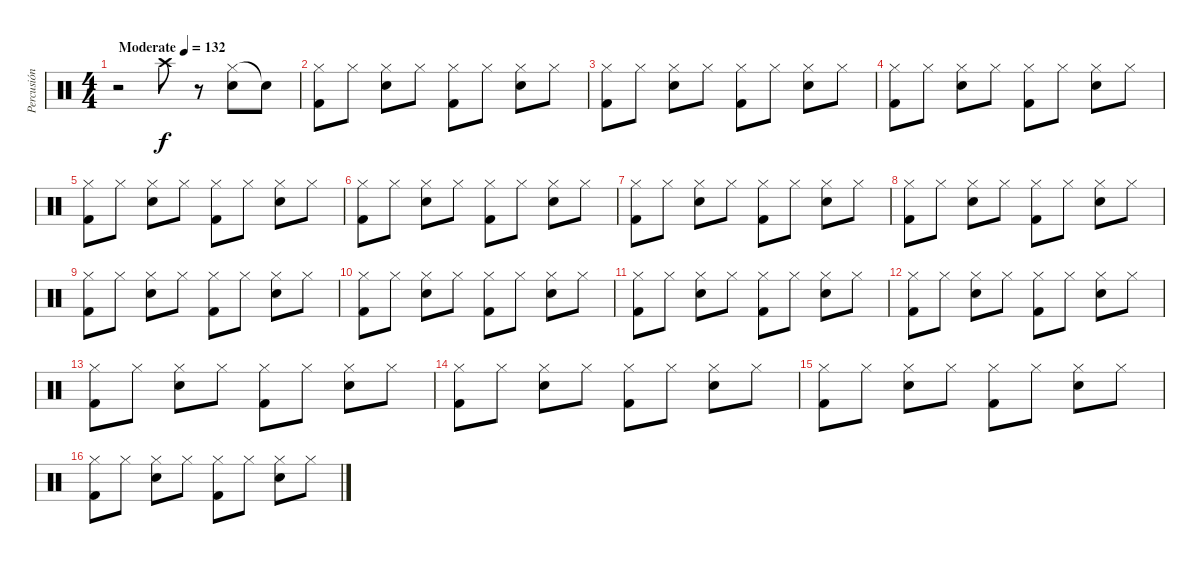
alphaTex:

\track ("Percusión" "Percusión") {instrument percussion}
\staff {score}
\articulation defaults
\ts (4 4)
\tempo (132 "Moderate")
\clef neutral
\ks c
r.2{dy f} "Crash high (hit)".8 r.8 ("Hi-Hat (closed)" "Snare (hit)").8 "Snare (hit)"{t}.8 |
("Hi-Hat (closed)" "Kick (hit) 2").8 "Hi-Hat (closed)".8 ("Hi-Hat (closed)" "Electric Snare (hit)").8 "Hi-Hat (closed)".8 ("Hi-Hat (closed)" "Kick (hit) 2").8 "Hi-Hat (closed)".8 ("Hi-Hat (closed)" "Electric Snare (hit)").8 "Hi-Hat (closed)".8 |
("Hi-Hat (closed)" "Kick (hit) 2").8 "Hi-Hat (closed)".8 ("Hi-Hat (closed)" "Electric Snare (hit)").8 "Hi-Hat (closed)".8 ("Hi-Hat (closed)" "Kick (hit) 2").8 "Hi-Hat (closed)".8 ("Hi-Hat (closed)" "Electric Snare (hit)").8 "Hi-Hat (closed)".8 |
("Hi-Hat (closed)" "Kick (hit) 2").8 "Hi-Hat (closed)".8 ("Hi-Hat (closed)" "Electric Snare (hit)").8 "Hi-Hat (closed)".8 ("Hi-Hat (closed)" "Kick (hit) 2").8 "Hi-Hat (closed)".8 ("Hi-Hat (closed)" "Electric Snare (hit)").8 "Hi-Hat (closed)".8 |
("Hi-Hat (closed)" "Kick (hit) 2").8 "Hi-Hat (closed)".8 ("Hi-Hat (closed)" "Electric Snare (hit)").8 "Hi-Hat (closed)".8 ("Hi-Hat (closed)" "Kick (hit) 2").8 "Hi-Hat (closed)".8 ("Hi-Hat (closed)" "Electric Snare (hit)").8 "Hi-Hat (closed)".8 |
("Hi-Hat (closed)" "Kick (hit) 2").8 "Hi-Hat (closed)".8 ("Hi-Hat (closed)" "Electric Snare (hit)").8 "Hi-Hat (closed)".8 ("Hi-Hat (closed)" "Kick (hit) 2").8 "Hi-Hat (closed)".8 ("Hi-Hat (closed)" "Electric Snare (hit)").8 "Hi-Hat (closed)".8 |
("Hi-Hat (closed)" "Kick (hit) 2").8 "Hi-Hat (closed)".8 ("Hi-Hat (closed)" "Electric Snare (hit)").8 "Hi-Hat (closed)".8 ("Hi-Hat (closed)" "Kick (hit) 2").8 "Hi-Hat (closed)".8 ("Hi-Hat (closed)" "Electric Snare (hit)").8 "Hi-Hat (closed)".8 |
("Hi-Hat (closed)" "Kick (hit) 2").8 "Hi-Hat (closed)".8 ("Hi-Hat (closed)" "Electric Snare (hit)").8 "Hi-Hat (closed)".8 ("Hi-Hat (closed)" "Kick (hit) 2").8 "Hi-Hat (closed)".8 ("Hi-Hat (closed)" "Electric Snare (hit)").8 "Hi-Hat (closed)".8 |
("Hi-Hat (closed)" "Kick (hit) 2").8 "Hi-Hat (closed)".8 ("Hi-Hat (closed)" "Electric Snare (hit)").8 "Hi-Hat (closed)".8 ("Hi-Hat (closed)" "Kick (hit) 2").8 "Hi-Hat (closed)".8 ("Hi-Hat (closed)" "Electric Snare (hit)").8 "Hi-Hat (closed)".8 |
("Hi-Hat (closed)" "Kick (hit) 2").8 "Hi-Hat (closed)".8 ("Hi-Hat (closed)" "Electric Snare (hit)").8 "Hi-Hat (closed)".8 ("Hi-Hat (closed)" "Kick (hit) 2").8 "Hi-Hat (closed)".8 ("Hi-Hat (closed)" "Electric Snare (hit)").8 "Hi-Hat (closed)".8 |
("Hi-Hat (closed)" "Kick (hit) 2").8 "Hi-Hat (closed)".8 ("Hi-Hat (closed)" "Electric Snare (hit)").8 "Hi-Hat (closed)".8 ("Hi-Hat (closed)" "Kick (hit) 2").8 "Hi-Hat (closed)".8 ("Hi-Hat (closed)" "Electric Snare (hit)").8 "Hi-Hat (closed)".8 |
("Hi-Hat (closed)" "Kick (hit) 2").8 "Hi-Hat (closed)".8 ("Hi-Hat (closed)" "Electric Snare (hit)").8 "Hi-Hat (closed)".8 ("Hi-Hat (closed)" "Kick (hit) 2").8 "Hi-Hat (closed)".8 ("Hi-Hat (closed)" "Electric Snare (hit)").8 "Hi-Hat (closed)".8 |
("Hi-Hat (closed)" "Kick (hit) 2").8 "Hi-Hat (closed)".8 ("Hi-Hat (closed)" "Electric Snare (hit)").8 "Hi-Hat (closed)".8 ("Hi-Hat (closed)" "Kick (hit) 2").8 "Hi-Hat (closed)".8 ("Hi-Hat (closed)" "Electric Snare (hit)").8 "Hi-Hat (closed)".8 |
("Hi-Hat (closed)" "Kick (hit) 2").8 "Hi-Hat (closed)".8 ("Hi-Hat (closed)" "Electric Snare (hit)").8 "Hi-Hat (closed)".8 ("Hi-Hat (closed)" "Kick (hit) 2").8 "Hi-Hat (closed)".8 ("Hi-Hat (closed)" "Electric Snare (hit)").8 "Hi-Hat (closed)".8 |
("Hi-Hat (closed)" "Kick (hit) 2").8 "Hi-Hat (closed)".8 ("Hi-Hat (closed)" "Electric Snare (hit)").8 "Hi-Hat (closed)".8 ("Hi-Hat (closed)" "Kick (hit) 2").8 "Hi-Hat (closed)".8 ("Hi-Hat (closed)" "Electric Snare (hit)").8 "Hi-Hat (closed)".8 |
("Hi-Hat (closed)" "Kick (hit) 2").8 "Hi-Hat (closed)".8 ("Hi-Hat (closed)" "Electric Snare (hit)").8 "Hi-Hat (closed)".8 ("Hi-Hat (closed)" "Kick (hit) 2").8 "Hi-Hat (closed)".8 ("Hi-Hat (closed)" "Electric Snare (hit)").8 "Hi-Hat (closed)".8
